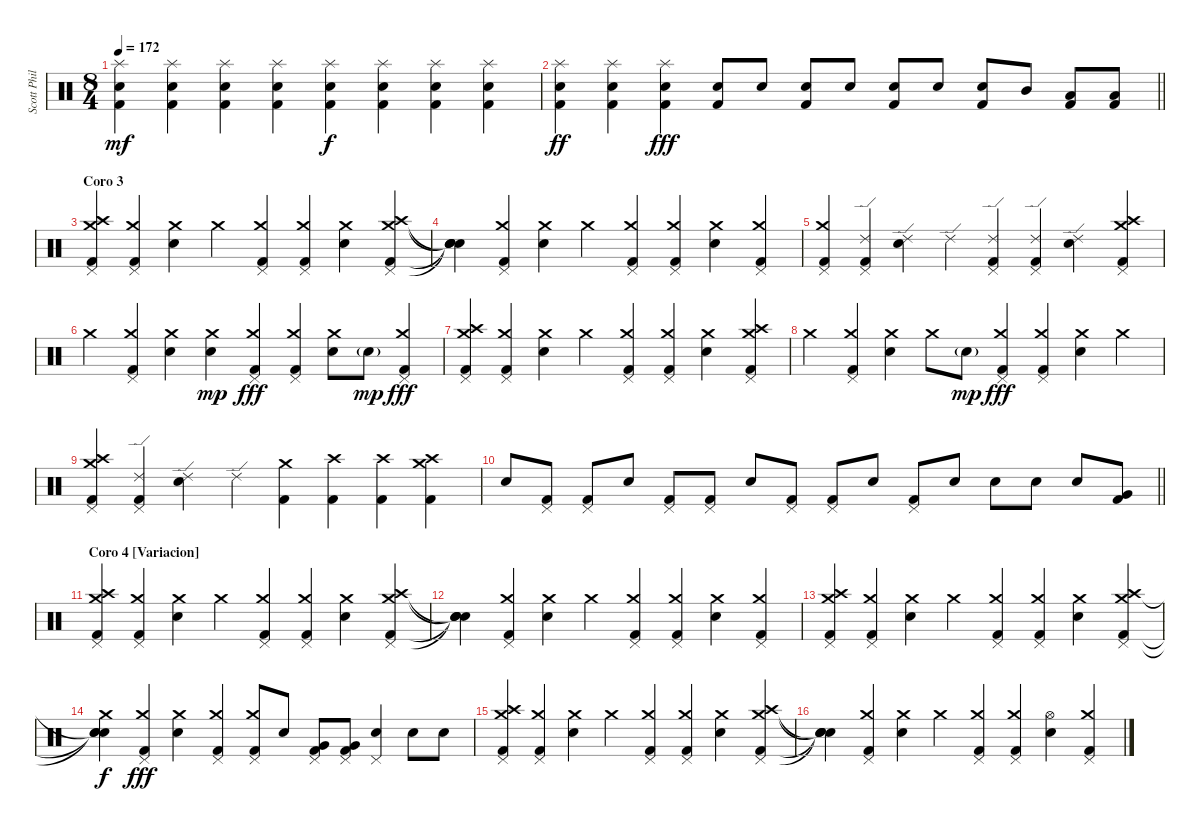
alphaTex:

\track ("Scott Phillips [Drums]" "Scott Phil") {instrument percussion}
\staff {score}
\articulation defaults
\ts (8 4)
\tempo 172
\clef neutral
\ks c
("Splash (hit)" "Electric Snare (hit)" "Kick (hit) 2").4{dy mf} ("Splash (hit)" "Electric Snare (hit)" "Kick (hit) 2").4 ("Splash (hit)" "Electric Snare (hit)" "Kick (hit) 2").4 ("Splash (hit)" "Electric Snare (hit)" "Kick (hit) 2").4 ("Splash (hit)" "Electric Snare (hit)" "Kick (hit) 2").4{dy f} ("Splash (hit)" "Electric Snare (hit)" "Kick (hit) 2").4 ("Splash (hit)" "Electric Snare (hit)" "Kick (hit) 2").4 ("Splash (hit)" "Electric Snare (hit)" "Kick (hit) 2").4 |
\barLineRight lightlight
("Splash (hit)" "Electric Snare (hit)" "Kick (hit) 2").4{dy ff} ("Splash (hit)" "Electric Snare (hit)" "Kick (hit) 2").4 ("Splash (hit)" "Electric Snare (hit)" "Kick (hit) 2").4{dy fff} ("Electric Snare (hit)" "Kick (hit) 2").8 "Electric Snare (hit)".8 ("Electric Snare (hit)" "Kick (hit) 2").8 "Electric Snare (hit)".8 ("Electric Snare (hit)" "Kick (hit) 2").8 "Electric Snare (hit)".8 ("Electric Snare (hit)" "Kick (hit) 2").8 "Mid Tom (hit)".8 ("Low Tom (hit)" "Kick (hit) 2").8 ("Low Floor Tom (hit)" "Kick (hit) 2").8 |
\section ("" "Coro 3")
("Crash high (hit)" "Crash medium (hit)" "Pedal Hi-Hat (hit)" "Kick (hit) 2").4 ("Crash medium (hit)" "Pedal Hi-Hat (hit)" "Kick (hit) 2").4 ("Crash medium (hit)" "Electric Snare (hit)").4 "Crash medium (hit)".4 ("Crash medium (hit)" "Pedal Hi-Hat (hit)" "Kick (hit) 2").4 ("Crash medium (hit)" "Pedal Hi-Hat (hit)" "Kick (hit) 2").4 ("Crash medium (hit)" "Electric Snare (hit)").4 ("Crash high (hit)" "Crash medium (hit)" "Pedal Hi-Hat (hit)" "Kick (hit) 2").4 |
("Snare (hit)"{t} "Snare (hit)"{t} "Snare (hit)"{t} "Snare (hit)"{t}).4 ("Crash medium (hit)" "Pedal Hi-Hat (hit)" "Kick (hit) 2").4 ("Crash medium (hit)" "Electric Snare (hit)").4 "Crash medium (hit)".4 ("Crash medium (hit)" "Pedal Hi-Hat (hit)" "Kick (hit) 2").4 ("Crash medium (hit)" "Pedal Hi-Hat (hit)" "Kick (hit) 2").4 ("Crash medium (hit)" "Electric Snare (hit)").4 ("Crash medium (hit)" "Pedal Hi-Hat (hit)" "Kick (hit) 2").4 |
("Crash medium (hit)" "Pedal Hi-Hat (hit)" "Kick (hit) 2").4 ("Ride (edge) 2" "Pedal Hi-Hat (hit)" "Kick (hit) 2").4 ("Ride (edge) 2" "Electric Snare (hit)").4 "Ride (edge) 2".4 ("Ride (edge) 2" "Pedal Hi-Hat (hit)" "Kick (hit) 2").4 ("Ride (edge) 2" "Pedal Hi-Hat (hit)" "Kick (hit) 2").4 ("Ride (edge) 2" "Electric Snare (hit)").4 ("Crash high (hit)" "Crash medium (hit)" "Pedal Hi-Hat (hit)" "Kick (hit) 2").4 |
"Crash medium (hit)".4 ("Crash medium (hit)" "Pedal Hi-Hat (hit)" "Kick (hit) 2").4 ("Crash medium (hit)" "Electric Snare (hit)").4 ("Crash medium (hit)" "Electric Snare (hit)").4{dy mp} ("Crash medium (hit)" "Pedal Hi-Hat (hit)" "Kick (hit) 2").4{dy fff} ("Crash medium (hit)" "Pedal Hi-Hat (hit)" "Kick (hit) 2").4 ("Crash medium (hit)" "Electric Snare (hit)").8 "Electric Snare (hit)"{g}.8{dy mp} ("Crash medium (hit)" "Pedal Hi-Hat (hit)" "Kick (hit) 2").4{dy fff} |
("Crash high (hit)" "Crash medium (hit)" "Pedal Hi-Hat (hit)" "Kick (hit) 2").4 ("Crash medium (hit)" "Pedal Hi-Hat (hit)" "Kick (hit) 2").4 ("Crash medium (hit)" "Electric Snare (hit)").4 "Crash medium (hit)".4 ("Crash medium (hit)" "Pedal Hi-Hat (hit)" "Kick (hit) 2").4 ("Crash medium (hit)" "Pedal Hi-Hat (hit)" "Kick (hit) 2").4 ("Crash medium (hit)" "Electric Snare (hit)").4 ("Crash high (hit)" "Crash medium (hit)" "Pedal Hi-Hat (hit)" "Kick (hit) 2").4 |
"Crash medium (hit)".4 ("Crash medium (hit)" "Pedal Hi-Hat (hit)" "Kick (hit) 2").4 ("Crash medium (hit)" "Electric Snare (hit)").4 "Crash medium (hit)".8 "Electric Snare (hit)"{g}.8{dy mp} ("Crash medium (hit)" "Pedal Hi-Hat (hit)" "Kick (hit) 2").4{dy fff} ("Crash medium (hit)" "Pedal Hi-Hat (hit)" "Kick (hit) 2").4 ("Crash medium (hit)" "Electric Snare (hit)").4 "Crash medium (hit)".4 |
("Crash high (hit)" "Crash medium (hit)" "Pedal Hi-Hat (hit)" "Kick (hit) 2").4 ("Ride (edge) 2" "Pedal Hi-Hat (hit)" "Kick (hit) 2").4 ("Ride (edge) 2" "Electric Snare (hit)").4 "Ride (edge) 2".4 ("Crash medium (hit)" "Kick (hit) 2").4 ("Crash high (hit)" "Kick (hit) 2").4 ("Crash high (hit)" "Kick (hit) 2").4 ("Crash high (hit)" "Crash medium (hit)" "Kick (hit) 2").4 |
\barLineRight lightlight "Electric Snare (hit)".8
("Pedal Hi-Hat (hit)" "Kick (hit) 2").8 ("Pedal Hi-Hat (hit)" "Kick (hit) 2").8 "Electric Snare (hit)".8 ("Pedal Hi-Hat (hit)" "Kick (hit) 2").8 ("Pedal Hi-Hat (hit)" "Kick (hit) 2").8 "Electric Snare (hit)".8 ("Pedal Hi-Hat (hit)" "Kick (hit) 2").8 ("Pedal Hi-Hat (hit)" "Kick (hit) 2").8 "Electric Snare (hit)".8 ("Pedal Hi-Hat (hit)" "Kick (hit) 2").8 "Electric Snare (hit)".8 "Electric Snare (hit)".8 "Electric Snare (hit)".8 "Electric Snare (hit)".8 ("Very Low Tom (hit)" "Kick (hit) 2").8 |
\section ("" "Coro 4 [Variacion]")
("Crash high (hit)" "Crash medium (hit)" "Pedal Hi-Hat (hit)" "Kick (hit) 2").4 ("Crash medium (hit)" "Pedal Hi-Hat (hit)" "Kick (hit) 2").4 ("Crash medium (hit)" "Electric Snare (hit)").4 "Crash medium (hit)".4 ("Crash medium (hit)" "Pedal Hi-Hat (hit)" "Kick (hit) 2").4 ("Crash medium (hit)" "Pedal Hi-Hat (hit)" "Kick (hit) 2").4 ("Crash medium (hit)" "Electric Snare (hit)").4 ("Crash high (hit)" "Crash medium (hit)" "Pedal Hi-Hat (hit)" "Kick (hit) 2").4 |
("Snare (hit)"{t} "Snare (hit)"{t} "Snare (hit)"{t} "Snare (hit)"{t}).4 ("Crash medium (hit)" "Pedal Hi-Hat (hit)" "Kick (hit) 2").4 ("Crash medium (hit)" "Electric Snare (hit)").4 "Crash medium (hit)".4 ("Crash medium (hit)" "Pedal Hi-Hat (hit)" "Kick (hit) 2").4 ("Crash medium (hit)" "Pedal Hi-Hat (hit)" "Kick (hit) 2").4 ("Crash medium (hit)" "Electric Snare (hit)").4 ("Crash medium (hit)" "Pedal Hi-Hat (hit)" "Kick (hit) 2").4 |
("Crash high (hit)" "Crash medium (hit)" "Pedal Hi-Hat (hit)" "Kick (hit) 2").4 ("Crash medium (hit)" "Pedal Hi-Hat (hit)" "Kick (hit) 2").4 ("Crash medium (hit)" "Electric Snare (hit)").4 "Crash medium (hit)".4 ("Crash medium (hit)" "Pedal Hi-Hat (hit)" "Kick (hit) 2").4 ("Crash medium (hit)" "Pedal Hi-Hat (hit)" "Kick (hit) 2").4 ("Crash medium (hit)" "Electric Snare (hit)").4 ("Crash high (hit)" "Crash medium (hit)" "Pedal Hi-Hat (hit)" "Kick (hit) 2").4 |
("Snare (hit)"{t} "Crash medium (hit)" "Snare (hit)"{t} "Snare (hit)"{t}).4{dy f} ("Crash medium (hit)" "Pedal Hi-Hat (hit)" "Kick (hit) 2").4{dy fff} ("Crash medium (hit)" "Electric Snare (hit)").4 ("Crash medium (hit)" "Pedal Hi-Hat (hit)" "Kick (hit) 2").4 ("Crash medium (hit)" "Pedal Hi-Hat (hit)" "Kick (hit) 2").8 "Electric Snare (hit)".8 ("Very Low Tom (hit)" "Pedal Hi-Hat (hit)" "Kick (hit) 2").8 ("Very Low Tom (hit)" "Pedal Hi-Hat (hit)" "Kick (hit) 2").8 ("Electric Snare (hit)" "Pedal Hi-Hat (hit)").4 "Electric Snare (hit)".8 "Electric Snare (hit)".8 |
("Crash high (hit)" "Crash medium (hit)" "Pedal Hi-Hat (hit)" "Kick (hit) 2").4 ("Crash medium (hit)" "Pedal Hi-Hat (hit)" "Kick (hit) 2").4 ("Crash medium (hit)" "Electric Snare (hit)").4 "Crash medium (hit)".4 ("Crash medium (hit)" "Pedal Hi-Hat (hit)" "Kick (hit) 2").4 ("Crash medium (hit)" "Pedal Hi-Hat (hit)" "Kick (hit) 2").4 ("Crash medium (hit)" "Electric Snare (hit)").4 ("Crash high (hit)" "Crash medium (hit)" "Pedal Hi-Hat (hit)" "Kick (hit) 2").4 |
("Snare (hit)"{t} "Snare (hit)"{t} "Snare (hit)"{t} "Snare (hit)"{t}).4 ("Crash medium (hit)" "Pedal Hi-Hat (hit)" "Kick (hit) 2").4 ("Crash medium (hit)" "Electric Snare (hit)").4 "Crash medium (hit)".4 ("Crash medium (hit)" "Pedal Hi-Hat (hit)" "Kick (hit) 2").4 ("Crash medium (hit)" "Pedal Hi-Hat (hit)" "Kick (hit) 2").4 ("Hi-Hat (open)" "Electric Snare (hit)").4 ("Crash medium (hit)" "Pedal Hi-Hat (hit)" "Kick (hit) 2").4
